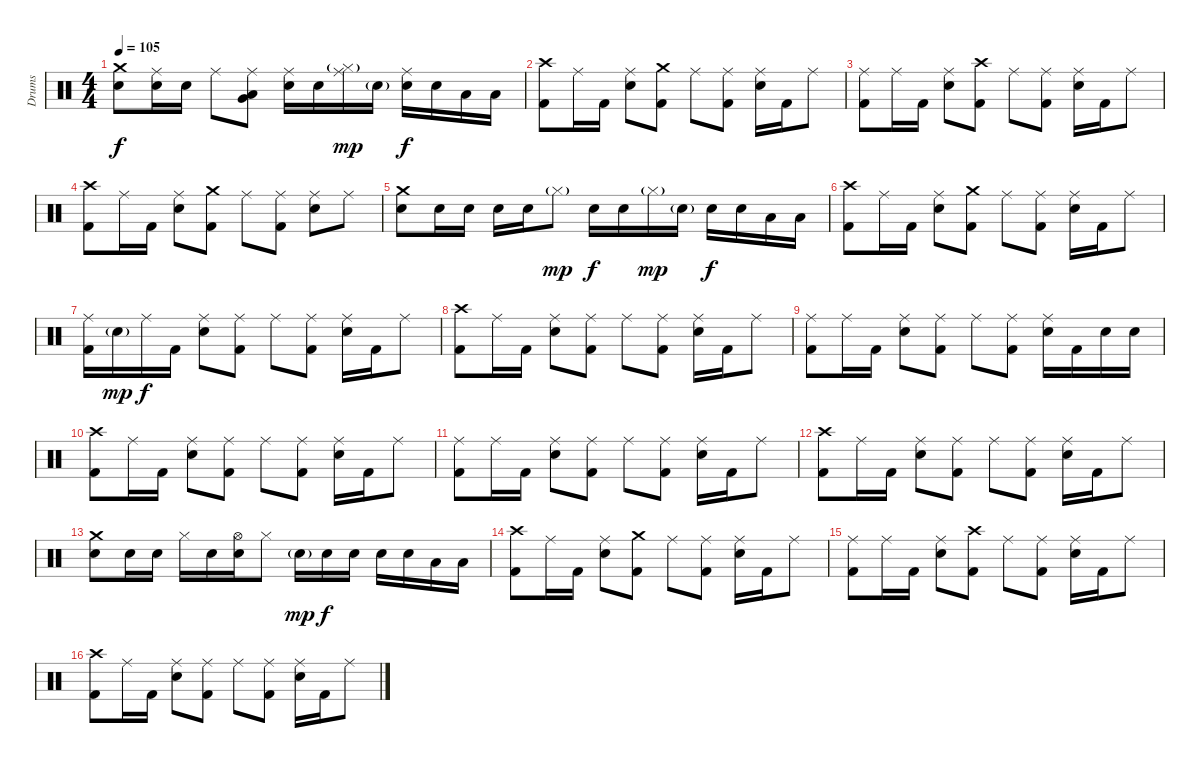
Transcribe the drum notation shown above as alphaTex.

\track ("Drums" "Drums") {instrument percussion}
\staff {score}
\articulation defaults
\ts (4 4)
\tempo 105
\clef neutral
\ks c
("Crash medium (hit)" "Electric Snare (hit)").8{dy f} ("Ride (middle)" "Electric Snare (hit)").16 "Electric Snare (hit)".16 "Ride (middle)".8 ("Ride (middle)" "Low Tom (hit)" "Very Low Tom (hit)").8 ("Ride (middle)" "Electric Snare (hit)").16 "Electric Snare (hit)".16 ("Ride (middle)" "Hi-Hat (closed)"{g}).16{dy mp} "Electric Snare (hit)"{g}.16 ("Ride (middle)" "Electric Snare (hit)").16{dy f} "Electric Snare (hit)".16 "Low Tom (hit)".16 "Low Tom (hit)".16 |
("Crash high (hit)" "Kick (hit) 2").8 "Ride (middle)".16 "Kick (hit) 2".16 ("Ride (middle)" "Electric Snare (hit)").8 ("Crash medium (hit)" "Kick (hit) 2").8 "Ride (middle)".8 ("Ride (middle)" "Kick (hit) 2").8 ("Ride (middle)" "Electric Snare (hit)").16 "Kick (hit) 2".16 "Ride (middle)".8 |
("Ride (middle)" "Kick (hit) 2").8 "Ride (middle)".16 "Kick (hit) 2".16 ("Ride (middle)" "Electric Snare (hit)").8 ("Crash high (hit)" "Kick (hit) 2").8 "Ride (middle)".8 ("Ride (middle)" "Kick (hit) 2").8 ("Ride (middle)" "Electric Snare (hit)").16 "Kick (hit) 2".16 "Ride (middle)".8 |
("Crash high (hit)" "Kick (hit) 2").8 "Ride (middle)".16 "Kick (hit) 2".16 ("Ride (middle)" "Electric Snare (hit)").8 ("Crash medium (hit)" "Kick (hit) 2").8 "Ride (middle)".8 ("Ride (middle)" "Kick (hit) 2").8 ("Ride (middle)" "Electric Snare (hit)").8 "Ride (middle)".8 |
("Crash medium (hit)" "Electric Snare (hit)").8 "Electric Snare (hit)".16 "Electric Snare (hit)".16 "Electric Snare (hit)".16 "Electric Snare (hit)".16 "Hi-Hat (closed)"{g}.8{dy mp} "Electric Snare (hit)".16{dy f} "Electric Snare (hit)".16 "Hi-Hat (closed)"{g}.16{dy mp} "Electric Snare (hit)"{g}.16 "Electric Snare (hit)".16{dy f} "Electric Snare (hit)".16 "Low Floor Tom (hit)".16 "Low Floor Tom (hit)".16 |
("Crash high (hit)" "Kick (hit) 2").8 "Ride (middle)".16 "Kick (hit) 2".16 ("Ride (middle)" "Electric Snare (hit)").8 ("Crash medium (hit)" "Kick (hit) 2").8 "Ride (middle)".8 ("Ride (middle)" "Kick (hit) 2").8 ("Ride (middle)" "Electric Snare (hit)").16 "Kick (hit) 2".16 "Ride (middle)".8 |
("Ride (middle)" "Kick (hit) 2").16 "Electric Snare (hit)"{g}.16{dy mp} "Ride (middle)".16{dy f} "Kick (hit) 2".16 ("Ride (middle)" "Electric Snare (hit)").8 ("Ride (middle)" "Kick (hit) 2").8 "Ride (middle)".8 ("Ride (middle)" "Kick (hit) 2").8 ("Ride (middle)" "Electric Snare (hit)").16 "Kick (hit) 2".16 "Ride (middle)".8 |
("Crash high (hit)" "Kick (hit) 2").8 "Ride (middle)".16 "Kick (hit) 2".16 ("Ride (middle)" "Electric Snare (hit)").8 ("Ride (middle)" "Kick (hit) 2").8 "Ride (middle)".8 ("Ride (middle)" "Kick (hit) 2").8 ("Ride (middle)" "Electric Snare (hit)").16 "Kick (hit) 2".16 "Ride (middle)".8 |
("Ride (middle)" "Kick (hit) 2").8 "Ride (middle)".16 "Kick (hit) 2".16 ("Ride (middle)" "Electric Snare (hit)").8 ("Ride (middle)" "Kick (hit) 2").8 "Ride (middle)".8 ("Ride (middle)" "Kick (hit) 2").8 ("Ride (middle)" "Electric Snare (hit)").16 "Kick (hit) 2".16 "Electric Snare (hit)".16 "Electric Snare (hit)".16 |
("Crash high (hit)" "Kick (hit) 2").8 "Ride (middle)".16 "Kick (hit) 2".16 ("Ride (middle)" "Electric Snare (hit)").8 ("Ride (middle)" "Kick (hit) 2").8 "Ride (middle)".8 ("Ride (middle)" "Kick (hit) 2").8 ("Ride (middle)" "Electric Snare (hit)").16 "Kick (hit) 2".16 "Ride (middle)".8 |
("Ride (middle)" "Kick (hit) 2").8 "Ride (middle)".16 "Kick (hit) 2".16 ("Ride (middle)" "Electric Snare (hit)").8 ("Ride (middle)" "Kick (hit) 2").8 "Ride (middle)".8 ("Ride (middle)" "Kick (hit) 2").8 ("Ride (middle)" "Electric Snare (hit)").16 "Kick (hit) 2".16 "Ride (middle)".8 |
("Crash high (hit)" "Kick (hit) 2").8 "Ride (middle)".16 "Kick (hit) 2".16 ("Ride (middle)" "Electric Snare (hit)").8 ("Ride (middle)" "Kick (hit) 2").8 "Ride (middle)".8 ("Ride (middle)" "Kick (hit) 2").8 ("Ride (middle)" "Electric Snare (hit)").16 "Kick (hit) 2".16 "Ride (middle)".8 |
("Crash medium (hit)" "Electric Snare (hit)").8 "Electric Snare (hit)".16 "Electric Snare (hit)".16 "Hi-Hat (closed)".16 "Electric Snare (hit)".16 ("Hi-Hat (open)" "Electric Snare (hit)").16 "Hi-Hat (closed)".8 "Electric Snare (hit)"{g}.16{dy mp} "Electric Snare (hit)".16{dy f} "Electric Snare (hit)".16 "Electric Snare (hit)".16 "Electric Snare (hit)".16 "Low Tom (hit)".16 "Low Tom (hit)".16 |
("Crash high (hit)" "Kick (hit) 2").8 "Ride (middle)".16 "Kick (hit) 2".16 ("Ride (middle)" "Electric Snare (hit)").8 ("Crash medium (hit)" "Kick (hit) 2").8 "Ride (middle)".8 ("Ride (middle)" "Kick (hit) 2").8 ("Ride (middle)" "Electric Snare (hit)").16 "Kick (hit) 2".16 "Ride (middle)".8 |
("Ride (middle)" "Kick (hit) 2").8 "Ride (middle)".16 "Kick (hit) 2".16 ("Ride (middle)" "Electric Snare (hit)").8 ("Crash high (hit)" "Kick (hit) 2").8 "Ride (middle)".8 ("Ride (middle)" "Kick (hit) 2").8 ("Ride (middle)" "Electric Snare (hit)").16 "Kick (hit) 2".16 "Ride (middle)".8 |
("Crash high (hit)" "Kick (hit) 2").8 "Ride (middle)".16 "Kick (hit) 2".16 ("Ride (middle)" "Electric Snare (hit)").8 ("Ride (middle)" "Kick (hit) 2").8 "Ride (middle)".8 ("Ride (middle)" "Kick (hit) 2").8 ("Ride (middle)" "Electric Snare (hit)").16 "Kick (hit) 2".16 "Ride (middle)".8
